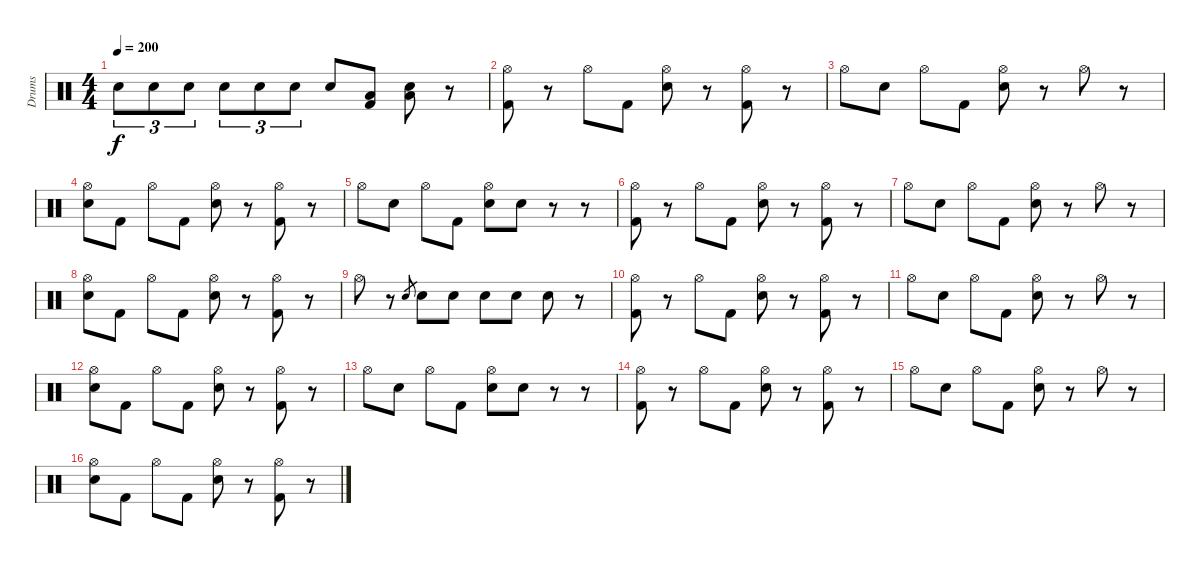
\track ("Drums" "Drums") {instrument percussion}
\staff {score}
\articulation defaults
\ts (4 4)
\tempo 200
\clef neutral
\ks c "Electric Snare (hit)".8{tu (3 2) dy f} "Electric Snare (hit)".8{tu (3 2)} "Electric Snare (hit)".8{tu (3 2)} "Electric Snare (hit)".8{tu (3 2)} "Electric Snare (hit)".8{tu (3 2)} "Electric Snare (hit)".8{tu (3 2)} "Electric Snare (hit)".8
("Low Tom (hit)" "Kick (hit) 2").8 ("Low Tom (hit)" "Electric Snare (hit)").8 r.8 |
("Hi-Hat (open)" "Kick (hit) 2").8 r.8 "Hi-Hat (open)".8 "Kick (hit) 2".8 ("Hi-Hat (open)" "Electric Snare (hit)").8 r.8 ("Hi-Hat (open)" "Kick (hit) 2").8 r.8 |
"Hi-Hat (open)".8 "Electric Snare (hit)".8 "Hi-Hat (open)".8 "Kick (hit) 2".8 ("Hi-Hat (open)" "Electric Snare (hit)").8 r.8 "Hi-Hat (open)".8 r.8 |
("Hi-Hat (open)" "Electric Snare (hit)").8 "Kick (hit) 2".8 "Hi-Hat (open)".8 "Kick (hit) 2".8 ("Hi-Hat (open)" "Electric Snare (hit)").8 r.8 ("Hi-Hat (open)" "Kick (hit) 2").8 r.8 |
"Hi-Hat (open)".8 "Electric Snare (hit)".8 "Hi-Hat (open)".8 "Kick (hit) 2".8 ("Hi-Hat (open)" "Electric Snare (hit)").8 "Electric Snare (hit)".8 r.8 r.8 |
("Hi-Hat (open)" "Kick (hit) 2").8 r.8 "Hi-Hat (open)".8 "Kick (hit) 2".8 ("Hi-Hat (open)" "Electric Snare (hit)").8 r.8 ("Hi-Hat (open)" "Kick (hit) 2").8 r.8 |
"Hi-Hat (open)".8 "Electric Snare (hit)".8 "Hi-Hat (open)".8 "Kick (hit) 2".8 ("Hi-Hat (open)" "Electric Snare (hit)").8 r.8 "Hi-Hat (open)".8 r.8 |
("Hi-Hat (open)" "Electric Snare (hit)").8 "Kick (hit) 2".8 "Hi-Hat (open)".8 "Kick (hit) 2".8 ("Hi-Hat (open)" "Electric Snare (hit)").8 r.8 ("Hi-Hat (open)" "Kick (hit) 2").8 r.8 |
"Hi-Hat (open)".8 r.8 "Electric Snare (hit)".8{gr} "Electric Snare (hit)".8 "Electric Snare (hit)".8 "Electric Snare (hit)".8 "Electric Snare (hit)".8 "Electric Snare (hit)".8 r.8 |
("Hi-Hat (open)" "Kick (hit) 2").8 r.8 "Hi-Hat (open)".8 "Kick (hit) 2".8 ("Hi-Hat (open)" "Electric Snare (hit)").8 r.8 ("Hi-Hat (open)" "Kick (hit) 2").8 r.8 |
"Hi-Hat (open)".8 "Electric Snare (hit)".8 "Hi-Hat (open)".8 "Kick (hit) 2".8 ("Hi-Hat (open)" "Electric Snare (hit)").8 r.8 "Hi-Hat (open)".8 r.8 |
("Hi-Hat (open)" "Electric Snare (hit)").8 "Kick (hit) 2".8 "Hi-Hat (open)".8 "Kick (hit) 2".8 ("Hi-Hat (open)" "Electric Snare (hit)").8 r.8 ("Hi-Hat (open)" "Kick (hit) 2").8 r.8 |
"Hi-Hat (open)".8 "Electric Snare (hit)".8 "Hi-Hat (open)".8 "Kick (hit) 2".8 ("Hi-Hat (open)" "Electric Snare (hit)").8 "Electric Snare (hit)".8 r.8 r.8 |
("Hi-Hat (open)" "Kick (hit) 2").8 r.8 "Hi-Hat (open)".8 "Kick (hit) 2".8 ("Hi-Hat (open)" "Electric Snare (hit)").8 r.8 ("Hi-Hat (open)" "Kick (hit) 2").8 r.8 |
"Hi-Hat (open)".8 "Electric Snare (hit)".8 "Hi-Hat (open)".8 "Kick (hit) 2".8 ("Hi-Hat (open)" "Electric Snare (hit)").8 r.8 "Hi-Hat (open)".8 r.8 |
("Hi-Hat (open)" "Electric Snare (hit)").8 "Kick (hit) 2".8 "Hi-Hat (open)".8 "Kick (hit) 2".8 ("Hi-Hat (open)" "Electric Snare (hit)").8 r.8 ("Hi-Hat (open)" "Kick (hit) 2").8 r.8
